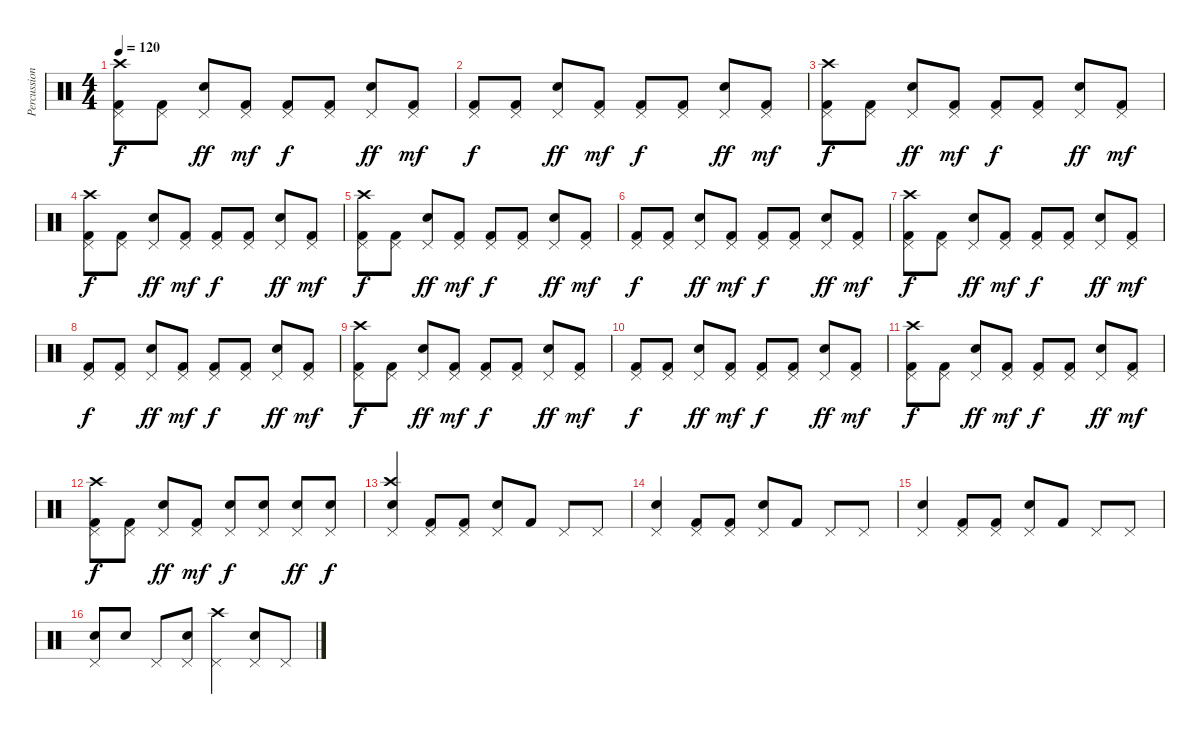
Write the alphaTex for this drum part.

\track ("Percussion" "Percussion") {instrument percussion}
\staff {score}
\articulation defaults
\ts (4 4)
\tempo 120
\clef neutral
\ks c
("Pedal Hi-Hat (hit)" "Kick (hit) 2" "Crash high (hit)").8{dy f} ("Pedal Hi-Hat (hit)" "Kick (hit) 2").8 ("Pedal Hi-Hat (hit)" "Electric Snare (hit)").8{dy ff} ("Pedal Hi-Hat (hit)" "Kick (hit) 2").8{dy mf} ("Pedal Hi-Hat (hit)" "Kick (hit) 2").8{dy f} ("Pedal Hi-Hat (hit)" "Kick (hit) 2").8 ("Pedal Hi-Hat (hit)" "Electric Snare (hit)").8{dy ff} ("Pedal Hi-Hat (hit)" "Kick (hit) 2").8{dy mf} |
("Pedal Hi-Hat (hit)" "Kick (hit) 2").8{dy f} ("Pedal Hi-Hat (hit)" "Kick (hit) 2").8 ("Pedal Hi-Hat (hit)" "Electric Snare (hit)").8{dy ff} ("Pedal Hi-Hat (hit)" "Kick (hit) 2").8{dy mf} ("Pedal Hi-Hat (hit)" "Kick (hit) 2").8{dy f} ("Pedal Hi-Hat (hit)" "Kick (hit) 2").8 ("Pedal Hi-Hat (hit)" "Electric Snare (hit)").8{dy ff} ("Pedal Hi-Hat (hit)" "Kick (hit) 2").8{dy mf} |
("Pedal Hi-Hat (hit)" "Kick (hit) 2" "Crash high (hit)").8{dy f} ("Pedal Hi-Hat (hit)" "Kick (hit) 2").8 ("Pedal Hi-Hat (hit)" "Electric Snare (hit)").8{dy ff} ("Pedal Hi-Hat (hit)" "Kick (hit) 2").8{dy mf} ("Pedal Hi-Hat (hit)" "Kick (hit) 2").8{dy f} ("Pedal Hi-Hat (hit)" "Kick (hit) 2").8 ("Pedal Hi-Hat (hit)" "Electric Snare (hit)").8{dy ff} ("Pedal Hi-Hat (hit)" "Kick (hit) 2").8{dy mf} |
("Pedal Hi-Hat (hit)" "Kick (hit) 2" "Crash high (hit)").8{dy f} ("Pedal Hi-Hat (hit)" "Kick (hit) 2").8 ("Pedal Hi-Hat (hit)" "Electric Snare (hit)").8{dy ff} ("Pedal Hi-Hat (hit)" "Kick (hit) 2").8{dy mf} ("Pedal Hi-Hat (hit)" "Kick (hit) 2").8{dy f} ("Pedal Hi-Hat (hit)" "Kick (hit) 2").8 ("Pedal Hi-Hat (hit)" "Electric Snare (hit)").8{dy ff} ("Pedal Hi-Hat (hit)" "Kick (hit) 2").8{dy mf} |
("Pedal Hi-Hat (hit)" "Kick (hit) 2" "Crash high (hit)").8{dy f} ("Pedal Hi-Hat (hit)" "Kick (hit) 2").8 ("Pedal Hi-Hat (hit)" "Electric Snare (hit)").8{dy ff} ("Pedal Hi-Hat (hit)" "Kick (hit) 2").8{dy mf} ("Pedal Hi-Hat (hit)" "Kick (hit) 2").8{dy f} ("Pedal Hi-Hat (hit)" "Kick (hit) 2").8 ("Pedal Hi-Hat (hit)" "Electric Snare (hit)").8{dy ff} ("Pedal Hi-Hat (hit)" "Kick (hit) 2").8{dy mf} |
("Pedal Hi-Hat (hit)" "Kick (hit) 2").8{dy f} ("Pedal Hi-Hat (hit)" "Kick (hit) 2").8 ("Pedal Hi-Hat (hit)" "Electric Snare (hit)").8{dy ff} ("Pedal Hi-Hat (hit)" "Kick (hit) 2").8{dy mf} ("Pedal Hi-Hat (hit)" "Kick (hit) 2").8{dy f} ("Pedal Hi-Hat (hit)" "Kick (hit) 2").8 ("Pedal Hi-Hat (hit)" "Electric Snare (hit)").8{dy ff} ("Pedal Hi-Hat (hit)" "Kick (hit) 2").8{dy mf} |
("Pedal Hi-Hat (hit)" "Kick (hit) 2" "Crash high (hit)").8{dy f} ("Pedal Hi-Hat (hit)" "Kick (hit) 2").8 ("Pedal Hi-Hat (hit)" "Electric Snare (hit)").8{dy ff} ("Pedal Hi-Hat (hit)" "Kick (hit) 2").8{dy mf} ("Pedal Hi-Hat (hit)" "Kick (hit) 2").8{dy f} ("Pedal Hi-Hat (hit)" "Kick (hit) 2").8 ("Pedal Hi-Hat (hit)" "Electric Snare (hit)").8{dy ff} ("Pedal Hi-Hat (hit)" "Kick (hit) 2").8{dy mf} |
("Pedal Hi-Hat (hit)" "Kick (hit) 2").8{dy f} ("Pedal Hi-Hat (hit)" "Kick (hit) 2").8 ("Pedal Hi-Hat (hit)" "Electric Snare (hit)").8{dy ff} ("Pedal Hi-Hat (hit)" "Kick (hit) 2").8{dy mf} ("Pedal Hi-Hat (hit)" "Kick (hit) 2").8{dy f} ("Pedal Hi-Hat (hit)" "Kick (hit) 2").8 ("Pedal Hi-Hat (hit)" "Electric Snare (hit)").8{dy ff} ("Pedal Hi-Hat (hit)" "Kick (hit) 2").8{dy mf} |
("Pedal Hi-Hat (hit)" "Kick (hit) 2" "Crash high (hit)").8{dy f} ("Pedal Hi-Hat (hit)" "Kick (hit) 2").8 ("Pedal Hi-Hat (hit)" "Electric Snare (hit)").8{dy ff} ("Pedal Hi-Hat (hit)" "Kick (hit) 2").8{dy mf} ("Pedal Hi-Hat (hit)" "Kick (hit) 2").8{dy f} ("Pedal Hi-Hat (hit)" "Kick (hit) 2").8 ("Pedal Hi-Hat (hit)" "Electric Snare (hit)").8{dy ff} ("Pedal Hi-Hat (hit)" "Kick (hit) 2").8{dy mf} |
("Pedal Hi-Hat (hit)" "Kick (hit) 2").8{dy f} ("Pedal Hi-Hat (hit)" "Kick (hit) 2").8 ("Pedal Hi-Hat (hit)" "Electric Snare (hit)").8{dy ff} ("Pedal Hi-Hat (hit)" "Kick (hit) 2").8{dy mf} ("Pedal Hi-Hat (hit)" "Kick (hit) 2").8{dy f} ("Pedal Hi-Hat (hit)" "Kick (hit) 2").8 ("Pedal Hi-Hat (hit)" "Electric Snare (hit)").8{dy ff} ("Pedal Hi-Hat (hit)" "Kick (hit) 2").8{dy mf} |
("Pedal Hi-Hat (hit)" "Kick (hit) 2" "Crash high (hit)").8{dy f} ("Pedal Hi-Hat (hit)" "Kick (hit) 2").8 ("Pedal Hi-Hat (hit)" "Electric Snare (hit)").8{dy ff} ("Pedal Hi-Hat (hit)" "Kick (hit) 2").8{dy mf} ("Pedal Hi-Hat (hit)" "Kick (hit) 2").8{dy f} ("Pedal Hi-Hat (hit)" "Kick (hit) 2").8 ("Pedal Hi-Hat (hit)" "Electric Snare (hit)").8{dy ff} ("Pedal Hi-Hat (hit)" "Kick (hit) 2").8{dy mf} |
("Pedal Hi-Hat (hit)" "Kick (hit) 2" "Crash high (hit)").8{dy f} ("Pedal Hi-Hat (hit)" "Kick (hit) 2").8 ("Pedal Hi-Hat (hit)" "Electric Snare (hit)").8{dy ff} ("Pedal Hi-Hat (hit)" "Kick (hit) 2").8{dy mf} ("Pedal Hi-Hat (hit)" "Electric Snare (hit)").8{dy f} ("Pedal Hi-Hat (hit)" "Electric Snare (hit)").8 ("Pedal Hi-Hat (hit)" "Electric Snare (hit)").8{dy ff} ("Pedal Hi-Hat (hit)" "Electric Snare (hit)").8{dy f} |
("Pedal Hi-Hat (hit)" "Electric Snare (hit)" "Crash high (hit)").4 ("Pedal Hi-Hat (hit)" "Kick (hit) 2").8 ("Pedal Hi-Hat (hit)" "Kick (hit) 2").8 ("Pedal Hi-Hat (hit)" "Electric Snare (hit)").8 "Kick (hit) 2".8 "Pedal Hi-Hat (hit)".8 "Pedal Hi-Hat (hit)".8 |
("Pedal Hi-Hat (hit)" "Electric Snare (hit)").4 ("Pedal Hi-Hat (hit)" "Kick (hit) 2").8 ("Pedal Hi-Hat (hit)" "Kick (hit) 2").8 ("Pedal Hi-Hat (hit)" "Electric Snare (hit)").8 "Kick (hit) 2".8 "Pedal Hi-Hat (hit)".8 "Pedal Hi-Hat (hit)".8 |
("Pedal Hi-Hat (hit)" "Electric Snare (hit)").4 ("Pedal Hi-Hat (hit)" "Kick (hit) 2").8 ("Pedal Hi-Hat (hit)" "Kick (hit) 2").8 ("Pedal Hi-Hat (hit)" "Electric Snare (hit)").8 "Kick (hit) 2".8 "Pedal Hi-Hat (hit)".8 "Pedal Hi-Hat (hit)".8 |
("Pedal Hi-Hat (hit)" "Electric Snare (hit)").8 "Electric Snare (hit)".8 "Pedal Hi-Hat (hit)".8 ("Pedal Hi-Hat (hit)" "Electric Snare (hit)").8 ("Pedal Hi-Hat (hit)" "Crash high (hit)").4 ("Pedal Hi-Hat (hit)" "Electric Snare (hit)").8 "Pedal Hi-Hat (hit)".8
